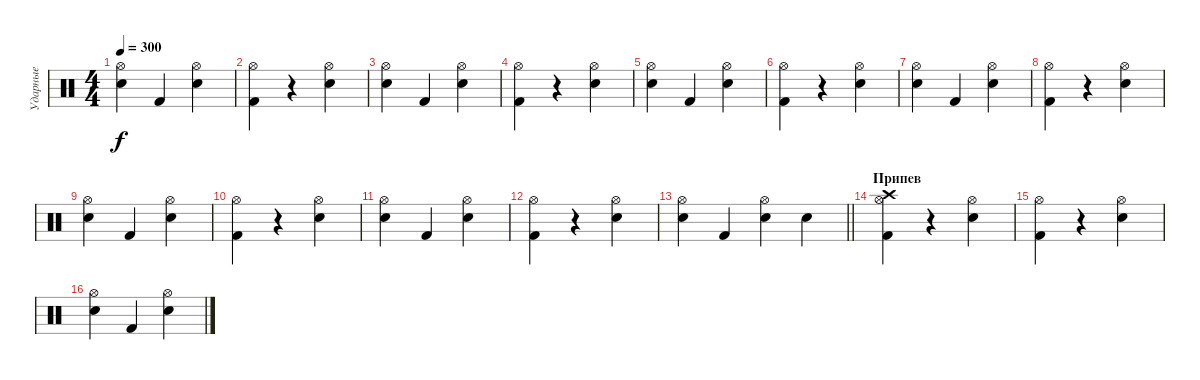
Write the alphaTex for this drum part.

\track ("Ударные" "Ударные") {instrument percussion}
\staff
\articulation defaults
\ts (4 4)
\tempo 300
\clef neutral
\ks c
("Snare (hit)" "Hi-Hat (open)").4{dy f} "Kick (hit) 2".4 ("Electric Snare (hit)" "Hi-Hat (open)").4 |
("Hi-Hat (open)" "Kick (hit) 2").4 r.4 ("Electric Snare (hit)" "Hi-Hat (open)").4 |
("Snare (hit)" "Hi-Hat (open)").4 "Kick (hit) 2".4 ("Electric Snare (hit)" "Hi-Hat (open)").4 |
("Hi-Hat (open)" "Kick (hit) 2").4 r.4 ("Electric Snare (hit)" "Hi-Hat (open)").4 |
("Snare (hit)" "Hi-Hat (open)").4 "Kick (hit) 2".4 ("Electric Snare (hit)" "Hi-Hat (open)").4 |
("Hi-Hat (open)" "Kick (hit) 2").4 r.4 ("Electric Snare (hit)" "Hi-Hat (open)").4 |
("Snare (hit)" "Hi-Hat (open)").4 "Kick (hit) 2".4 ("Electric Snare (hit)" "Hi-Hat (open)").4 |
("Hi-Hat (open)" "Kick (hit) 2").4 r.4 ("Electric Snare (hit)" "Hi-Hat (open)").4 |
("Snare (hit)" "Hi-Hat (open)").4 "Kick (hit) 2".4 ("Electric Snare (hit)" "Hi-Hat (open)").4 |
("Hi-Hat (open)" "Kick (hit) 2").4 r.4 ("Electric Snare (hit)" "Hi-Hat (open)").4 |
("Snare (hit)" "Hi-Hat (open)").4 "Kick (hit) 2".4 ("Electric Snare (hit)" "Hi-Hat (open)").4 |
("Hi-Hat (open)" "Kick (hit) 2").4 r.4 ("Electric Snare (hit)" "Hi-Hat (open)").4 |
\barLineRight lightlight
("Snare (hit)" "Hi-Hat (open)").4 "Kick (hit) 2".4 ("Electric Snare (hit)" "Hi-Hat (open)").4 "Electric Snare (hit)".4 |
\section ("" "Припев")
("Hi-Hat (open)" "Kick (hit) 2" "Crash high (hit)").4 r.4 ("Electric Snare (hit)" "Hi-Hat (open)").4 |
("Hi-Hat (open)" "Kick (hit) 2").4 r.4 ("Electric Snare (hit)" "Hi-Hat (open)").4 |
("Snare (hit)" "Hi-Hat (open)").4 "Kick (hit) 2".4 ("Electric Snare (hit)" "Hi-Hat (open)").4
